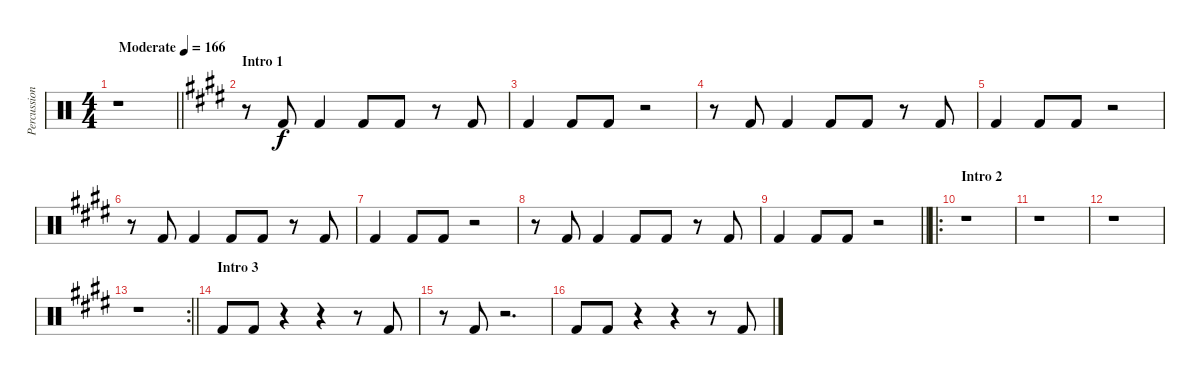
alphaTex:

\track ("Percussion - Other Again" "Percussion") {instrument percussion}
\staff {score}
\articulation defaults
\ts (4 4)
\tempo (166 "Moderate")
\clef neutral
\barLineRight lightlight
\ks c
r.1{dy f} |
\section ("" "Intro 1")
\ks e
r.8 "Kick (hit) 2".8 "Kick (hit) 2".4 "Kick (hit) 2".8 "Kick (hit) 2".8 r.8 "Kick (hit) 2".8 |
"Kick (hit) 2".4 "Kick (hit) 2".8 "Kick (hit) 2".8 r.2 |
r.8 "Kick (hit) 2".8 "Kick (hit) 2".4 "Kick (hit) 2".8 "Kick (hit) 2".8 r.8 "Kick (hit) 2".8 |
"Kick (hit) 2".4 "Kick (hit) 2".8 "Kick (hit) 2".8 r.2 |
r.8 "Kick (hit) 2".8 "Kick (hit) 2".4 "Kick (hit) 2".8 "Kick (hit) 2".8 r.8 "Kick (hit) 2".8 |
"Kick (hit) 2".4 "Kick (hit) 2".8 "Kick (hit) 2".8 r.2 |
r.8 "Kick (hit) 2".8 "Kick (hit) 2".4 "Kick (hit) 2".8 "Kick (hit) 2".8 r.8 "Kick (hit) 2".8 |
\barLineRight lightlight "Kick (hit) 2".4 "Kick (hit) 2".8 "Kick (hit) 2".8
r.2 |
\ro
\section ("" "Intro 2")
r.1 |
r.1 |
r.1 |
\rc 2
\barLineRight lightlight
r.1 |
\section ("" "Intro 3")
"Kick (hit) 2".8 "Kick (hit) 2".8 r.4 r.4 r.8 "Kick (hit) 2".8 |
r.8 "Kick (hit) 2".8 r.2{d} |
"Kick (hit) 2".8 "Kick (hit) 2".8 r.4 r.4 r.8 "Kick (hit) 2".8
